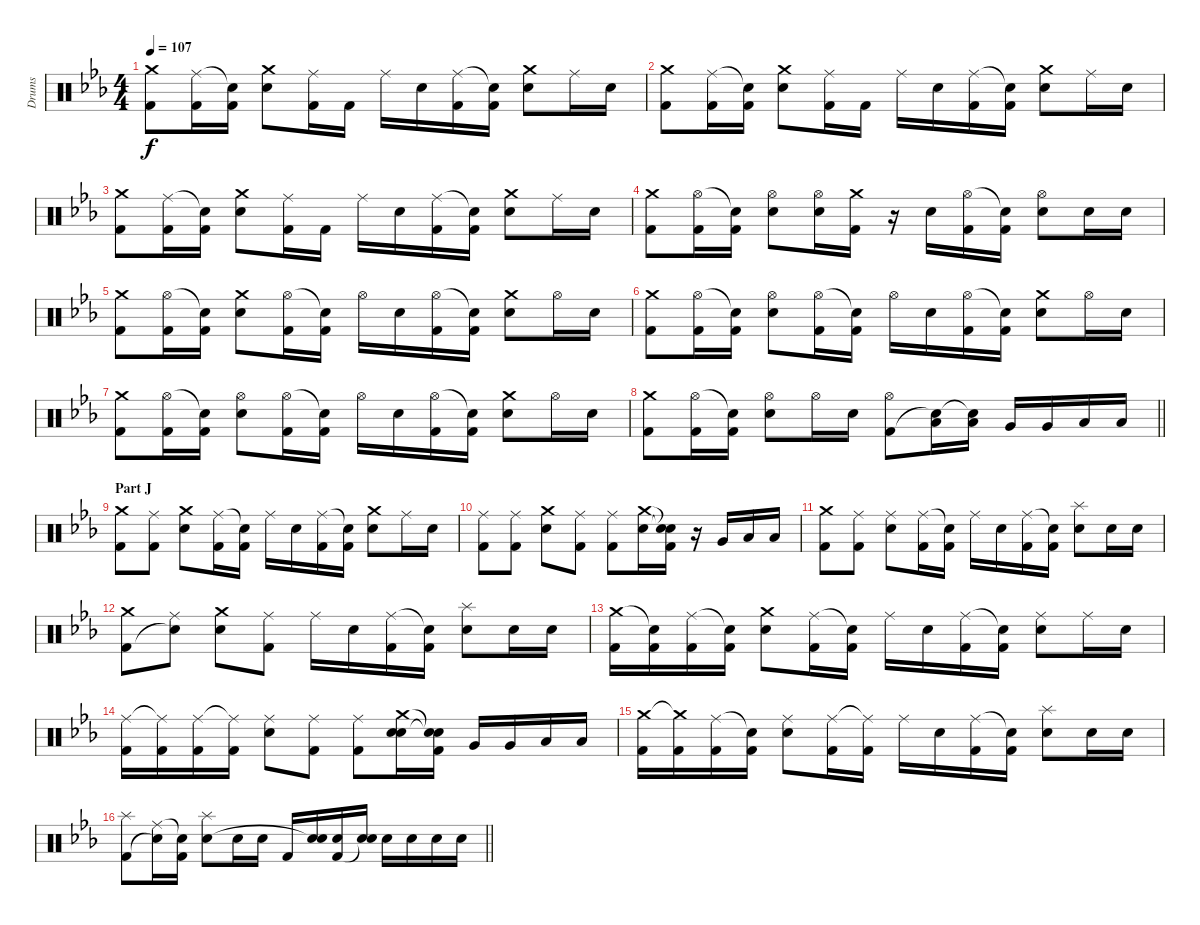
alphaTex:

\track ("Drums" "Drums") {instrument percussion}
\staff {score}
\articulation defaults
\ts (4 4)
\tempo 107
\clef neutral
\ks eb
("Crash medium (hit)" "Kick (hit) 2").8{dy f} ("Ride (middle)" "Kick (hit) 2").16 ("Snare (hit)"{t} "Kick (hit) 2").16 ("Crash medium (hit)" "Electric Snare (hit)").8 ("Ride (middle)" "Kick (hit) 2").16 "Kick (hit) 2".16 "Ride (middle)".16 "Electric Snare (hit)".16 ("Ride (middle)" "Kick (hit) 2").16 ("Snare (hit)"{t} "Kick (hit) 2").16 ("Crash medium (hit)" "Electric Snare (hit)").8 "Ride (middle)".16 "Electric Snare (hit)".16 |
("Crash medium (hit)" "Kick (hit) 2").8 ("Ride (middle)" "Kick (hit) 2").16 ("Snare (hit)"{t} "Kick (hit) 2").16 ("Crash medium (hit)" "Electric Snare (hit)").8 ("Ride (middle)" "Kick (hit) 2").16 "Kick (hit) 2".16 "Ride (middle)".16 "Electric Snare (hit)".16 ("Ride (middle)" "Kick (hit) 2").16 ("Snare (hit)"{t} "Kick (hit) 2").16 ("Crash medium (hit)" "Electric Snare (hit)").8 "Ride (middle)".16 "Electric Snare (hit)".16 |
("Crash medium (hit)" "Kick (hit) 2").8 ("Ride (middle)" "Kick (hit) 2").16 ("Snare (hit)"{t} "Kick (hit) 2").16 ("Crash medium (hit)" "Electric Snare (hit)").8 ("Ride (middle)" "Kick (hit) 2").16 "Kick (hit) 2".16 "Ride (middle)".16 "Electric Snare (hit)".16 ("Ride (middle)" "Kick (hit) 2").16 ("Snare (hit)"{t} "Kick (hit) 2").16 ("Crash medium (hit)" "Electric Snare (hit)").8 "Ride (middle)".16 "Electric Snare (hit)".16 |
("Crash medium (hit)" "Kick (hit) 2").8 ("Hi-Hat (open)" "Kick (hit) 2").16 ("Snare (hit)"{t} "Kick (hit) 2").16 ("Hi-Hat (open)" "Electric Snare (hit)").8 ("Hi-Hat (open)" "Electric Snare (hit)").16 ("Crash medium (hit)" "Kick (hit) 2").16 r.16 "Electric Snare (hit)".16 ("Hi-Hat (open)" "Kick (hit) 2").16 ("Snare (hit)"{t} "Kick (hit) 2").16 ("Hi-Hat (open)" "Electric Snare (hit)").8 "Electric Snare (hit)".16 "Electric Snare (hit)".16 |
("Crash medium (hit)" "Kick (hit) 2").8 ("Hi-Hat (open)" "Kick (hit) 2").16 ("Snare (hit)"{t} "Kick (hit) 2").16 ("Crash medium (hit)" "Electric Snare (hit)").8 ("Hi-Hat (open)" "Kick (hit) 2").16 ("Snare (hit)"{t} "Kick (hit) 2").16 "Hi-Hat (open)".16 "Electric Snare (hit)".16 ("Hi-Hat (open)" "Kick (hit) 2").16 ("Snare (hit)"{t} "Kick (hit) 2").16 ("Crash medium (hit)" "Electric Snare (hit)").8 "Hi-Hat (open)".16 "Electric Snare (hit)".16 |
("Crash medium (hit)" "Kick (hit) 2").8 ("Hi-Hat (open)" "Kick (hit) 2").16 ("Snare (hit)"{t} "Kick (hit) 2").16 ("Hi-Hat (open)" "Electric Snare (hit)").8 ("Hi-Hat (open)" "Kick (hit) 2").16 ("Snare (hit)"{t} "Kick (hit) 2").16 "Hi-Hat (open)".16 "Electric Snare (hit)".16 ("Hi-Hat (open)" "Kick (hit) 2").16 ("Snare (hit)"{t} "Kick (hit) 2").16 ("Crash medium (hit)" "Electric Snare (hit)").8 "Hi-Hat (open)".16 "Electric Snare (hit)".16 |
("Crash medium (hit)" "Kick (hit) 2").8 ("Hi-Hat (open)" "Kick (hit) 2").16 ("Snare (hit)"{t} "Kick (hit) 2").16 ("Hi-Hat (open)" "Electric Snare (hit)").8 ("Hi-Hat (open)" "Kick (hit) 2").16 ("Snare (hit)"{t} "Kick (hit) 2").16 "Hi-Hat (open)".16 "Electric Snare (hit)".16 ("Hi-Hat (open)" "Kick (hit) 2").16 ("Snare (hit)"{t} "Kick (hit) 2").16 ("Crash medium (hit)" "Electric Snare (hit)").8 "Hi-Hat (open)".16 "Electric Snare (hit)".16 |
\barLineRight lightlight
("Crash medium (hit)" "Kick (hit) 2").8 ("Hi-Hat (open)" "Kick (hit) 2").16 ("Snare (hit)"{t} "Kick (hit) 2").16 ("Hi-Hat (open)" "Electric Snare (hit)").8 "Hi-Hat (open)".16 "Electric Snare (hit)".16 ("Hi-Hat (open)" "Kick (hit) 2").8 ("Low Tom (hit)" "Snare (hit)"{t}).16 ("Low Tom (hit)" "Snare (hit)"{t}).16 "Very Low Tom (hit)".16 "Very Low Tom (hit)".16 "Low Floor Tom (hit)".16 "Low Floor Tom (hit)".16 |
\section ("" "Part J")
("Crash medium (hit)" "Kick (hit) 2").8 ("Ride (middle)" "Kick (hit) 2").8 ("Crash medium (hit)" "Electric Snare (hit)").8 ("Ride (middle)" "Kick (hit) 2").16 ("Snare (hit)"{t} "Kick (hit) 2").16 "Ride (middle)".16 "Electric Snare (hit)".16 ("Ride (middle)" "Kick (hit) 2").16 ("Snare (hit)"{t} "Kick (hit) 2").16 ("Crash medium (hit)" "Electric Snare (hit)").8 "Ride (middle)".16 "Electric Snare (hit)".16 |
("Ride (middle)" "Kick (hit) 2").8 ("Ride (middle)" "Kick (hit) 2").8 ("Crash medium (hit)" "Electric Snare (hit)").8 ("Ride (middle)" "Kick (hit) 2").8 ("Ride (middle)" "Kick (hit) 2").8 ("Crash medium (hit)" "Electric Snare (hit)").16 ("Snare (hit)"{t} "Snare (hit)"{t} "Kick (hit) 2").16 r.16 "Very Low Tom (hit)".16 "Low Floor Tom (hit)".16 "Low Floor Tom (hit)".16 |
("Crash medium (hit)" "Kick (hit) 2").8 ("Ride (middle)" "Kick (hit) 2").8 ("Ride (middle)" "Electric Snare (hit)").8 ("Ride (middle)" "Kick (hit) 2").16 ("Snare (hit)"{t} "Kick (hit) 2").16 "Ride (middle)".16 "Electric Snare (hit)".16 ("Ride (middle)" "Kick (hit) 2").16 ("Snare (hit)"{t} "Kick (hit) 2").16 ("Splash (hit)" "Electric Snare (hit)").8 "Electric Snare (hit)".16 "Electric Snare (hit)".16 |
("Crash medium (hit)" "Kick (hit) 2").8 ("Ride (middle)" "Snare (hit)"{t}).8 ("Crash medium (hit)" "Electric Snare (hit)").8 ("Ride (middle)" "Kick (hit) 2").8 "Ride (middle)".16 "Electric Snare (hit)".16 ("Ride (middle)" "Kick (hit) 2").16 ("Snare (hit)"{t} "Kick (hit) 2").16 ("Splash (hit)" "Electric Snare (hit)").8 "Electric Snare (hit)".16 "Electric Snare (hit)".16 |
("Crash medium (hit)" "Kick (hit) 2").16 ("Snare (hit)"{t} "Kick (hit) 2").16 ("Ride (middle)" "Kick (hit) 2").16 ("Snare (hit)"{t} "Kick (hit) 2").16 ("Crash medium (hit)" "Electric Snare (hit)").8 ("Ride (middle)" "Kick (hit) 2").16 ("Snare (hit)"{t} "Kick (hit) 2").16 "Ride (middle)".16 "Electric Snare (hit)".16 ("Ride (middle)" "Kick (hit) 2").16 ("Snare (hit)"{t} "Kick (hit) 2").16 ("Ride (middle)" "Electric Snare (hit)").8 "Ride (middle)".16 "Electric Snare (hit)".16 |
("Ride (middle)" "Kick (hit) 2").16 ("Ride (middle)"{t} "Kick (hit) 2").16 ("Ride (middle)" "Kick (hit) 2").16 ("Ride (middle)"{t} "Kick (hit) 2").16 ("Ride (middle)" "Electric Snare (hit)").8 ("Ride (middle)" "Kick (hit) 2").8 ("Ride (middle)" "Kick (hit) 2").8 ("Crash medium (hit)" "Electric Snare (hit)" "Snare (hit)").16 ("Snare (hit)"{t} "Snare (hit)"{t} "Kick (hit) 2").16 "Very Low Tom (hit)".16 "Very Low Tom (hit)".16 "Low Floor Tom (hit)".16 "Low Floor Tom (hit)".16 |
("Crash medium (hit)" "Kick (hit) 2").16 ("Crash medium (hit)"{t} "Kick (hit) 2").16 ("Ride (middle)" "Kick (hit) 2").16 ("Snare (hit)"{t} "Kick (hit) 2").16 ("Ride (middle)" "Electric Snare (hit)").8 ("Ride (middle)" "Kick (hit) 2").16 ("Ride (middle)"{t} "Kick (hit) 2").16 "Ride (middle)".16 "Electric Snare (hit)".16 ("Ride (middle)" "Kick (hit) 2").16 ("Snare (hit)"{t} "Kick (hit) 2").16 ("Splash (hit)" "Electric Snare (hit)").8 "Electric Snare (hit)".16 "Electric Snare (hit)".16 |
\barLineRight lightlight
("Splash (hit)" "Kick (hit) 2").8 ("Ride (middle)" "Snare (hit)"{t}).16 ("Snare (hit)"{t} "Kick (hit) 2").16 ("Splash (hit)" "Electric Snare (hit)").8 "Electric Snare (hit)".16 "Electric Snare (hit)".16 "Kick (hit) 2".16 ("Electric Snare (hit)" "Snare (hit)"{t}).16 ("Electric Snare (hit)" "Kick (hit) 2").16 ("Electric Snare (hit)" "Snare (hit)"{t}).16 "Electric Snare (hit)".16 "Electric Snare (hit)".16 "Electric Snare (hit)".16 "Electric Snare (hit)".16
